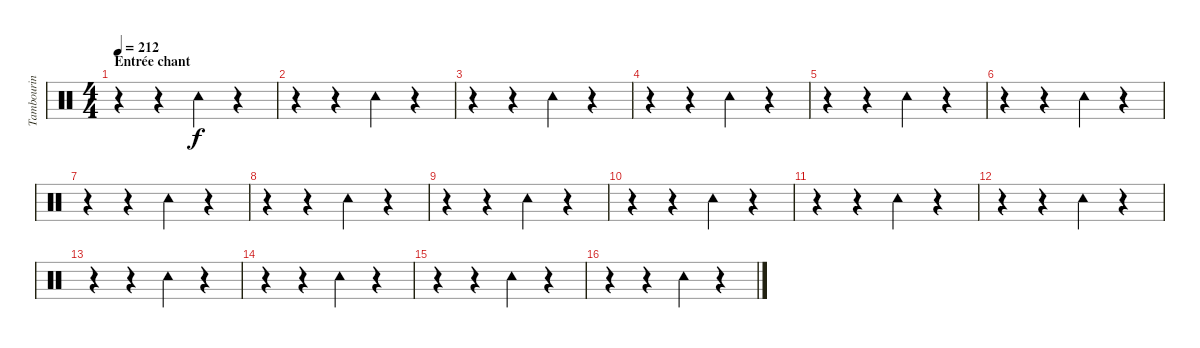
\track ("Tambourin" "Tambourin") {instrument percussion}
\staff {score}
\articulation defaults
\ts (4 4)
\section ("" "Entrée chant")
\tempo 212
\clef neutral
\ks c
r.4{dy f} r.4 "Tambourine (hit)".4 r.4 |
r.4 r.4 "Tambourine (hit)".4 r.4 |
r.4 r.4 "Tambourine (hit)".4 r.4 |
r.4 r.4 "Tambourine (hit)".4 r.4 |
r.4 r.4 "Tambourine (hit)".4 r.4 |
r.4 r.4 "Tambourine (hit)".4 r.4 |
r.4 r.4 "Tambourine (hit)".4 r.4 |
r.4 r.4 "Tambourine (hit)".4 r.4 |
r.4 r.4 "Tambourine (hit)".4 r.4 |
r.4 r.4 "Tambourine (hit)".4 r.4 |
r.4 r.4 "Tambourine (hit)".4 r.4 |
r.4 r.4 "Tambourine (hit)".4 r.4 |
r.4 r.4 "Tambourine (hit)".4 r.4 |
r.4 r.4 "Tambourine (hit)".4 r.4 |
r.4 r.4 "Tambourine (hit)".4 r.4 |
r.4 r.4 "Tambourine (hit)".4 r.4
